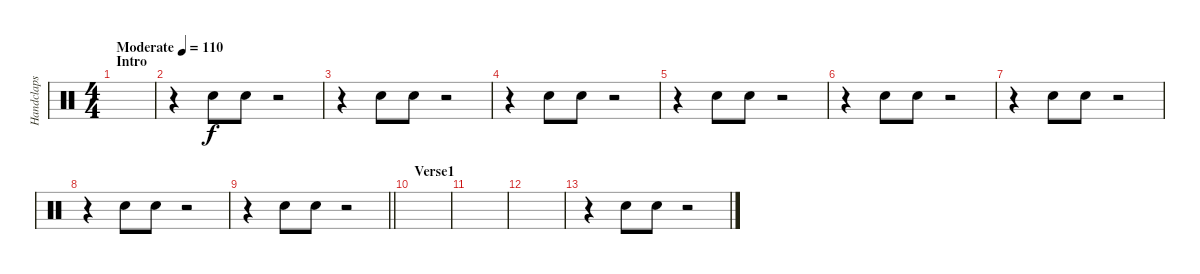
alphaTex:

\track ("Handclaps" "Handclaps") {instrument percussion}
\staff {score}
\articulation defaults
\ts (4 4)
\section ("" "Intro")
\tempo (110 "Moderate")
\clef neutral
\ks c
|
r.4 "Hand Clap (hit)".8 "Hand Clap (hit)".8 r.2 |
r.4 "Hand Clap (hit)".8 "Hand Clap (hit)".8 r.2 |
r.4 "Hand Clap (hit)".8 "Hand Clap (hit)".8 r.2 |
r.4 "Hand Clap (hit)".8 "Hand Clap (hit)".8 r.2 |
r.4 "Hand Clap (hit)".8 "Hand Clap (hit)".8 r.2 |
r.4 "Hand Clap (hit)".8 "Hand Clap (hit)".8 r.2 |
r.4 "Hand Clap (hit)".8 "Hand Clap (hit)".8 r.2 |
\barLineRight lightlight
r.4 "Hand Clap (hit)".8 "Hand Clap (hit)".8 r.2 |
\section ("" "Verse1")
|
|
|
r.4 "Hand Clap (hit)".8 "Hand Clap (hit)".8 r.2
